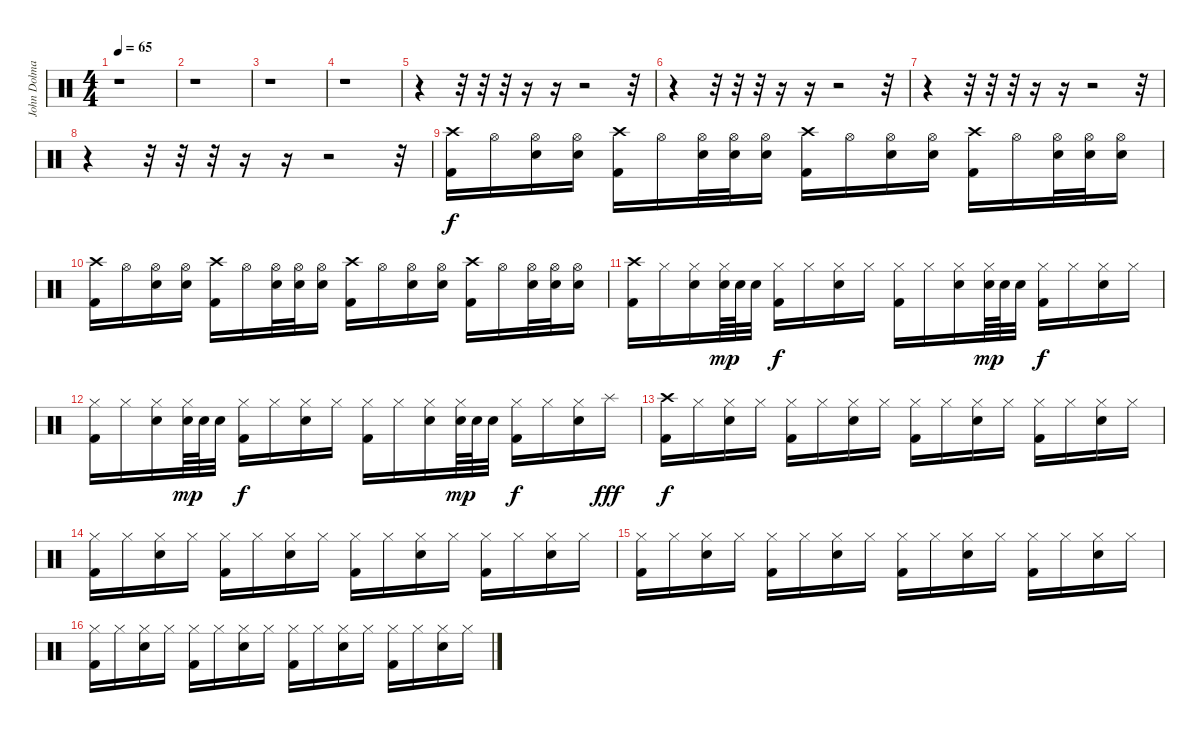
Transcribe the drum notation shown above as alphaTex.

\track ("John Dolmayan: Drums" "John Dolma") {instrument percussion}
\staff {score}
\articulation defaults
\ts (4 4)
\tempo 65
\clef neutral
\ks c
r.1{dy f} |
r.1 |
r.1 |
r.1 |
r.4 r.32 r.32 r.32 r.16 r.16 r.2 r.32 |
r.4 r.32 r.32 r.32 r.16 r.16 r.2 r.32 |
r.4 r.32 r.32 r.32 r.16 r.16 r.2 r.32 |
r.4 r.32 r.32 r.32 r.16 r.16 r.2 r.32 |
("Crash high (hit)" "Kick (hit) 2").16 "Hi-Hat (open)".16 ("Electric Snare (hit)" "Hi-Hat (open)").16 ("Electric Snare (hit)" "Hi-Hat (open)").16 ("Kick (hit) 2" "Crash high (hit)").16 "Hi-Hat (open)".16 ("Electric Snare (hit)" "Hi-Hat (open)").32 ("Electric Snare (hit)" "Hi-Hat (open)").32 ("Electric Snare (hit)" "Hi-Hat (open)").16 ("Kick (hit) 2" "Crash high (hit)").16 "Hi-Hat (open)".16 ("Electric Snare (hit)" "Hi-Hat (open)").16 ("Electric Snare (hit)" "Hi-Hat (open)").16 ("Kick (hit) 2" "Crash high (hit)").16 "Hi-Hat (open)".16 ("Electric Snare (hit)" "Hi-Hat (open)").32 ("Electric Snare (hit)" "Hi-Hat (open)").32 ("Electric Snare (hit)" "Hi-Hat (open)").16 |
("Crash high (hit)" "Kick (hit) 2").16 "Hi-Hat (open)".16 ("Electric Snare (hit)" "Hi-Hat (open)").16 ("Electric Snare (hit)" "Hi-Hat (open)").16 ("Kick (hit) 2" "Crash high (hit)").16 "Hi-Hat (open)".16 ("Electric Snare (hit)" "Hi-Hat (open)").32 ("Electric Snare (hit)" "Hi-Hat (open)").32 ("Electric Snare (hit)" "Hi-Hat (open)").16 ("Kick (hit) 2" "Crash high (hit)").16 "Hi-Hat (open)".16 ("Electric Snare (hit)" "Hi-Hat (open)").16 ("Electric Snare (hit)" "Hi-Hat (open)").16 ("Kick (hit) 2" "Crash high (hit)").16 "Hi-Hat (open)".16 ("Electric Snare (hit)" "Hi-Hat (open)").32 ("Electric Snare (hit)" "Hi-Hat (open)").32 ("Electric Snare (hit)" "Hi-Hat (open)").16 |
("Kick (hit) 2" "Crash high (hit)").16 "Hi-Hat (closed)".16 ("Hi-Hat (closed)" "Electric Snare (hit)").16 ("Hi-Hat (closed)" "Electric Snare (hit)").64{dy mp} "Electric Snare (hit)".64 "Electric Snare (hit)".32 ("Hi-Hat (closed)" "Kick (hit) 2").16{dy f} "Hi-Hat (closed)".16 ("Hi-Hat (closed)" "Electric Snare (hit)").16 "Hi-Hat (closed)".16 ("Hi-Hat (closed)" "Kick (hit) 2").16 "Hi-Hat (closed)".16 ("Hi-Hat (closed)" "Electric Snare (hit)").16 ("Hi-Hat (closed)" "Electric Snare (hit)").64{dy mp} "Electric Snare (hit)".64 "Electric Snare (hit)".32 ("Kick (hit) 2" "Hi-Hat (closed)").16{dy f} "Hi-Hat (closed)".16 ("Hi-Hat (closed)" "Electric Snare (hit)").16 "Hi-Hat (closed)".16 |
("Kick (hit) 2" "Hi-Hat (closed)").16 "Hi-Hat (closed)".16 ("Hi-Hat (closed)" "Electric Snare (hit)").16 ("Hi-Hat (closed)" "Electric Snare (hit)").64{dy mp} "Electric Snare (hit)".64 "Electric Snare (hit)".32 ("Hi-Hat (closed)" "Kick (hit) 2").16{dy f} "Hi-Hat (closed)".16 ("Hi-Hat (closed)" "Electric Snare (hit)").16 "Hi-Hat (closed)".16 ("Hi-Hat (closed)" "Kick (hit) 2").16 "Hi-Hat (closed)".16 ("Hi-Hat (closed)" "Electric Snare (hit)").16 ("Hi-Hat (closed)" "Electric Snare (hit)").64{dy mp} "Electric Snare (hit)".64 "Electric Snare (hit)".32 ("Kick (hit) 2" "Hi-Hat (closed)").16{dy f} "Hi-Hat (closed)".16 ("Hi-Hat (closed)" "Electric Snare (hit)").16 "Splash (hit)".16{dy fff} |
("Kick (hit) 2" "Crash high (hit)").16{dy f} "Hi-Hat (closed)".16 ("Hi-Hat (closed)" "Electric Snare (hit)").16 "Hi-Hat (closed)".16 ("Hi-Hat (closed)" "Kick (hit) 2").16 "Hi-Hat (closed)".16 ("Hi-Hat (closed)" "Electric Snare (hit)").16 "Hi-Hat (closed)".16 ("Hi-Hat (closed)" "Kick (hit) 2").16 "Hi-Hat (closed)".16 ("Hi-Hat (closed)" "Electric Snare (hit)").16 "Hi-Hat (closed)".16 ("Kick (hit) 2" "Hi-Hat (closed)").16 "Hi-Hat (closed)".16 ("Hi-Hat (closed)" "Electric Snare (hit)").16 "Hi-Hat (closed)".16 |
("Hi-Hat (closed)" "Kick (hit) 2").16 "Hi-Hat (closed)".16 ("Hi-Hat (closed)" "Electric Snare (hit)").16 "Hi-Hat (closed)".16 ("Hi-Hat (closed)" "Kick (hit) 2").16 "Hi-Hat (closed)".16 ("Hi-Hat (closed)" "Electric Snare (hit)").16 "Hi-Hat (closed)".16 ("Hi-Hat (closed)" "Kick (hit) 2").16 "Hi-Hat (closed)".16 ("Hi-Hat (closed)" "Electric Snare (hit)").16 "Hi-Hat (closed)".16 ("Hi-Hat (closed)" "Kick (hit) 2").16 "Hi-Hat (closed)".16 ("Hi-Hat (closed)" "Electric Snare (hit)").16 "Hi-Hat (closed)".16 |
("Hi-Hat (closed)" "Kick (hit) 2").16 "Hi-Hat (closed)".16 ("Hi-Hat (closed)" "Electric Snare (hit)").16 "Hi-Hat (closed)".16 ("Hi-Hat (closed)" "Kick (hit) 2").16 "Hi-Hat (closed)".16 ("Hi-Hat (closed)" "Electric Snare (hit)").16 "Hi-Hat (closed)".16 ("Hi-Hat (closed)" "Kick (hit) 2").16 "Hi-Hat (closed)".16 ("Hi-Hat (closed)" "Electric Snare (hit)").16 "Hi-Hat (closed)".16 ("Hi-Hat (closed)" "Kick (hit) 2").16 "Hi-Hat (closed)".16 ("Hi-Hat (closed)" "Electric Snare (hit)").16 "Hi-Hat (closed)".16 |
("Hi-Hat (closed)" "Kick (hit) 2").16 "Hi-Hat (closed)".16 ("Hi-Hat (closed)" "Electric Snare (hit)").16 "Hi-Hat (closed)".16 ("Hi-Hat (closed)" "Kick (hit) 2").16 "Hi-Hat (closed)".16 ("Hi-Hat (closed)" "Electric Snare (hit)").16 "Hi-Hat (closed)".16 ("Hi-Hat (closed)" "Kick (hit) 2").16 "Hi-Hat (closed)".16 ("Hi-Hat (closed)" "Electric Snare (hit)").16 "Hi-Hat (closed)".16 ("Hi-Hat (closed)" "Kick (hit) 2").16 "Hi-Hat (closed)".16 ("Hi-Hat (closed)" "Electric Snare (hit)").16 "Hi-Hat (closed)".16
